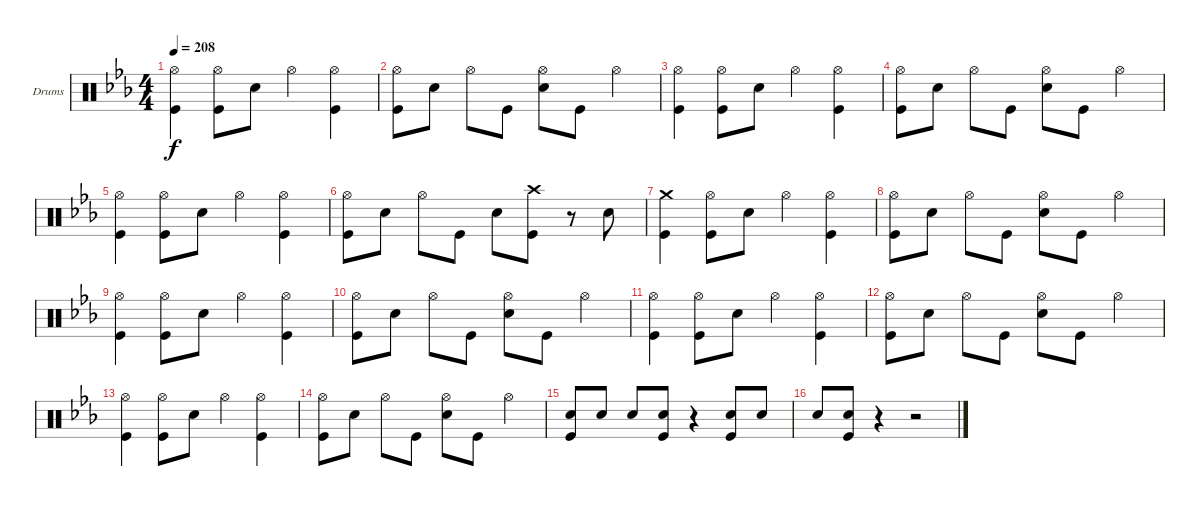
\defaultSystemsLayout 4
\bracketExtendMode groupsimilarinstruments
\firstSystemTrackNameOrientation horizontal
\otherSystemsTrackNameOrientation horizontal
\track ("Drumkit" "Drums") {instrument percussion}
\staff {score}
\articulation defaults
\ts (4 4)
\tempo 208
\clef neutral
\ks eb
("Hi-Hat (open)" "Kick (hit)").4{dy f} ("Hi-Hat (open)" "Kick (hit)").8 "Snare (hit) 2".8 "Hi-Hat (open)".4 ("Hi-Hat (open)" "Kick (hit)").4 |
("Hi-Hat (open)" "Kick (hit)").8 "Snare (hit) 2".8 "Hi-Hat (open)".8 "Kick (hit)".8 ("Hi-Hat (open)" "Snare (hit) 2").8 "Kick (hit)".8 "Hi-Hat (open)".4 |
("Hi-Hat (open)" "Kick (hit)").4 ("Hi-Hat (open)" "Kick (hit)").8 "Snare (hit) 2".8 "Hi-Hat (open)".4 ("Hi-Hat (open)" "Kick (hit)").4 |
("Hi-Hat (open)" "Kick (hit)").8 "Snare (hit) 2".8 "Hi-Hat (open)".8 "Kick (hit)".8 ("Hi-Hat (open)" "Snare (hit) 2").8 "Kick (hit)".8 "Hi-Hat (open)".4 |
("Hi-Hat (open)" "Kick (hit)").4 ("Hi-Hat (open)" "Kick (hit)").8 "Snare (hit) 2".8 "Hi-Hat (open)".4 ("Hi-Hat (open)" "Kick (hit)").4 |
("Hi-Hat (open)" "Kick (hit)").8 "Snare (hit) 2".8 "Hi-Hat (open)".8 "Kick (hit)".8 "Snare (hit) 2".8 ("Crash high (hit)" "Kick (hit)").8 r.8 "Snare (hit) 2".8 |
("Crash medium (hit)" "Kick (hit)").4 ("Hi-Hat (open)" "Kick (hit)").8 "Snare (hit) 2".8 "Hi-Hat (open)".4 ("Hi-Hat (open)" "Kick (hit)").4 |
("Hi-Hat (open)" "Kick (hit)").8 "Snare (hit) 2".8 "Hi-Hat (open)".8 "Kick (hit)".8 ("Hi-Hat (open)" "Snare (hit) 2").8 "Kick (hit)".8 "Hi-Hat (open)".4 |
("Hi-Hat (open)" "Kick (hit)").4 ("Hi-Hat (open)" "Kick (hit)").8 "Snare (hit) 2".8 "Hi-Hat (open)".4 ("Hi-Hat (open)" "Kick (hit)").4 |
("Hi-Hat (open)" "Kick (hit)").8 "Snare (hit) 2".8 "Hi-Hat (open)".8 "Kick (hit)".8 ("Hi-Hat (open)" "Snare (hit) 2").8 "Kick (hit)".8 "Hi-Hat (open)".4 |
("Hi-Hat (open)" "Kick (hit)").4 ("Hi-Hat (open)" "Kick (hit)").8 "Snare (hit) 2".8 "Hi-Hat (open)".4 ("Hi-Hat (open)" "Kick (hit)").4 |
("Hi-Hat (open)" "Kick (hit)").8 "Snare (hit) 2".8 "Hi-Hat (open)".8 "Kick (hit)".8 ("Hi-Hat (open)" "Snare (hit) 2").8 "Kick (hit)".8 "Hi-Hat (open)".4 |
("Hi-Hat (open)" "Kick (hit)").4 ("Hi-Hat (open)" "Kick (hit)").8 "Snare (hit) 2".8 "Hi-Hat (open)".4 ("Hi-Hat (open)" "Kick (hit)").4 |
("Hi-Hat (open)" "Kick (hit)").8 "Snare (hit) 2".8 "Hi-Hat (open)".8 "Kick (hit)".8 ("Hi-Hat (open)" "Snare (hit) 2").8 "Kick (hit)".8 "Hi-Hat (open)".4 |
("Snare (hit) 2" "Kick (hit)").8 "Snare (hit) 2".8 "Snare (hit) 2".8 ("Snare (hit) 2" "Kick (hit)").8 r.4 ("Snare (hit) 2" "Kick (hit)").8 "Snare (hit) 2".8 |
"Snare (hit) 2".8 ("Snare (hit) 2" "Kick (hit)").8 r.4 r.2
